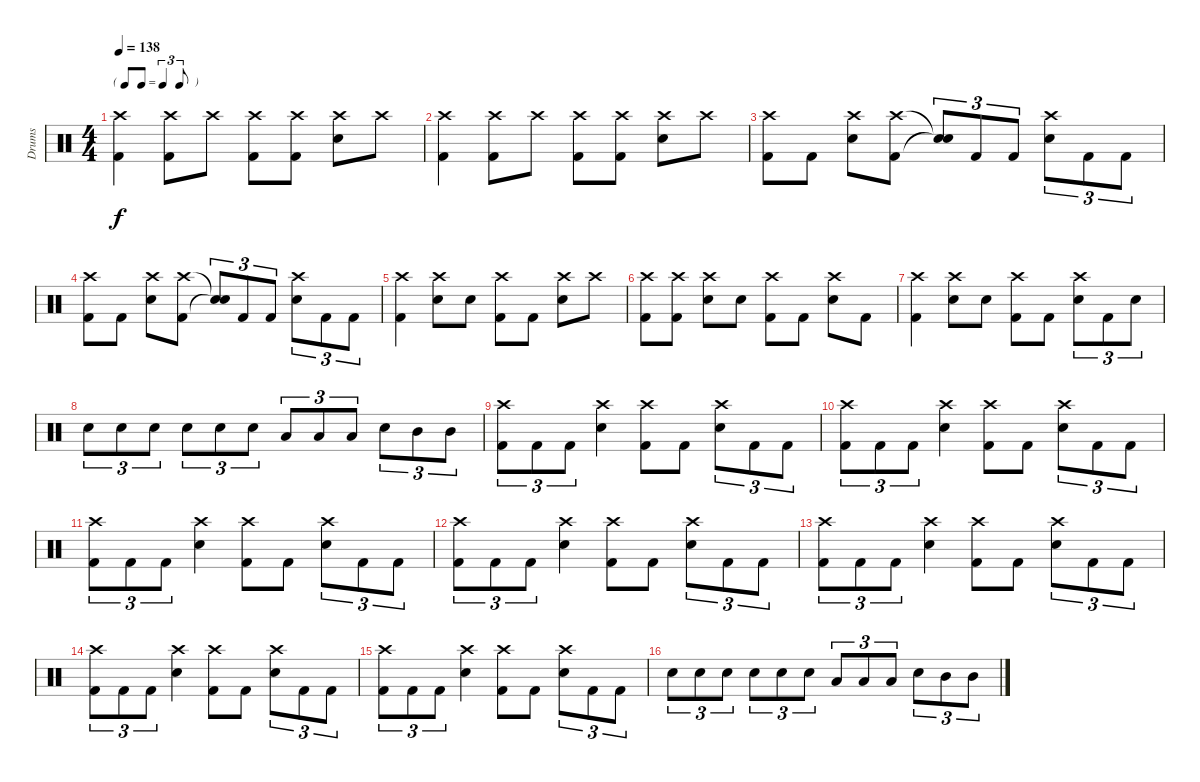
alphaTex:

\track ("Drums" "Drums") {instrument percussion}
\staff {score}
\articulation defaults
\ts (4 4)
\tf triplet8th
\tempo 138
\clef neutral
\ks c
("Crash high (hit)" "Kick (hit) 2").4{dy f} ("Crash high (hit)" "Kick (hit) 2").8 "Crash high (hit)".8 ("Crash high (hit)" "Kick (hit) 2").8 ("Crash high (hit)" "Kick (hit) 2").8 ("Crash high (hit)" "Snare (hit) 2").8 "Crash high (hit)".8 |
("Crash high (hit)" "Kick (hit) 2").4 ("Crash high (hit)" "Kick (hit) 2").8 "Crash high (hit)".8 ("Crash high (hit)" "Kick (hit) 2").8 ("Crash high (hit)" "Kick (hit) 2").8 ("Crash high (hit)" "Snare (hit) 2").8 "Crash high (hit)".8 |
("Crash high (hit)" "Kick (hit) 2").8 "Kick (hit) 2".8 ("Crash high (hit)" "Snare (hit) 2").8 ("Crash high (hit)" "Kick (hit) 2").8 ("Snare (hit)"{t} "Snare (hit)"{t}).8{tu (3 2)} "Kick (hit) 2".8{tu (3 2)} "Kick (hit) 2".8{tu (3 2)} ("Crash high (hit)" "Snare (hit) 2").8{tu (3 2)} "Kick (hit) 2".8{tu (3 2)} "Kick (hit) 2".8{tu (3 2)} |
("Crash high (hit)" "Kick (hit) 2").8 "Kick (hit) 2".8 ("Crash high (hit)" "Snare (hit) 2").8 ("Crash high (hit)" "Kick (hit) 2").8 ("Snare (hit)"{t} "Snare (hit)"{t}).8{tu (3 2)} "Kick (hit) 2".8{tu (3 2)} "Kick (hit) 2".8{tu (3 2)} ("Crash high (hit)" "Snare (hit) 2").8{tu (3 2)} "Kick (hit) 2".8{tu (3 2)} "Kick (hit) 2".8{tu (3 2)} |
("Crash high (hit)" "Kick (hit) 2").4 ("Crash high (hit)" "Snare (hit) 2").8 "Snare (hit) 2".8 ("Crash high (hit)" "Kick (hit) 2").8 "Kick (hit) 2".8 ("Crash high (hit)" "Snare (hit) 2").8 "Crash high (hit)".8 |
("Crash high (hit)" "Kick (hit) 2").8 ("Crash high (hit)" "Kick (hit) 2").8 ("Crash high (hit)" "Snare (hit) 2").8 "Snare (hit) 2".8 ("Crash high (hit)" "Kick (hit) 2").8 "Kick (hit) 2".8 ("Crash high (hit)" "Snare (hit) 2").8 "Kick (hit) 2".8 |
("Crash high (hit)" "Kick (hit) 2").4 ("Crash high (hit)" "Snare (hit) 2").8 "Snare (hit) 2".8 ("Crash high (hit)" "Kick (hit) 2").8 "Kick (hit) 2".8 ("Crash high (hit)" "Snare (hit) 2").8{tu (3 2)} "Kick (hit) 2".8{tu (3 2)} "Snare (hit) 2".8{tu (3 2)} |
"Snare (hit) 2".8{tu (3 2)} "Snare (hit) 2".8{tu (3 2)} "Snare (hit) 2".8{tu (3 2)} "Snare (hit) 2".8{tu (3 2)} "Snare (hit) 2".8{tu (3 2)} "Snare (hit) 2".8{tu (3 2)} "Low Tom (hit)".8{tu (3 2)} "Low Tom (hit)".8{tu (3 2)} "Low Tom (hit)".8{tu (3 2)} "Snare (hit) 2".8{tu (3 2)} "Mid Tom (hit)".8{tu (3 2)} "Mid Tom (hit)".8{tu (3 2)} |
("Crash high (hit)" "Kick (hit) 2").8{tu (3 2)} "Kick (hit) 2".8{tu (3 2)} "Kick (hit) 2".8{tu (3 2)} ("Crash high (hit)" "Snare (hit) 2").4 ("Crash high (hit)" "Kick (hit) 2").8 "Kick (hit) 2".8 ("Crash high (hit)" "Snare (hit) 2").8{tu (3 2)} "Kick (hit) 2".8{tu (3 2)} "Kick (hit) 2".8{tu (3 2)} |
("Crash high (hit)" "Kick (hit) 2").8{tu (3 2)} "Kick (hit) 2".8{tu (3 2)} "Kick (hit) 2".8{tu (3 2)} ("Crash high (hit)" "Snare (hit) 2").4 ("Crash high (hit)" "Kick (hit) 2").8 "Kick (hit) 2".8 ("Crash high (hit)" "Snare (hit) 2").8{tu (3 2)} "Kick (hit) 2".8{tu (3 2)} "Kick (hit) 2".8{tu (3 2)} |
("Crash high (hit)" "Kick (hit) 2").8{tu (3 2)} "Kick (hit) 2".8{tu (3 2)} "Kick (hit) 2".8{tu (3 2)} ("Crash high (hit)" "Snare (hit) 2").4 ("Crash high (hit)" "Kick (hit) 2").8 "Kick (hit) 2".8 ("Crash high (hit)" "Snare (hit) 2").8{tu (3 2)} "Kick (hit) 2".8{tu (3 2)} "Kick (hit) 2".8{tu (3 2)} |
("Crash high (hit)" "Kick (hit) 2").8{tu (3 2)} "Kick (hit) 2".8{tu (3 2)} "Kick (hit) 2".8{tu (3 2)} ("Crash high (hit)" "Snare (hit) 2").4 ("Crash high (hit)" "Kick (hit) 2").8 "Kick (hit) 2".8 ("Crash high (hit)" "Snare (hit) 2").8{tu (3 2)} "Kick (hit) 2".8{tu (3 2)} "Kick (hit) 2".8{tu (3 2)} |
("Crash high (hit)" "Kick (hit) 2").8{tu (3 2)} "Kick (hit) 2".8{tu (3 2)} "Kick (hit) 2".8{tu (3 2)} ("Crash high (hit)" "Snare (hit) 2").4 ("Crash high (hit)" "Kick (hit) 2").8 "Kick (hit) 2".8 ("Crash high (hit)" "Snare (hit) 2").8{tu (3 2)} "Kick (hit) 2".8{tu (3 2)} "Kick (hit) 2".8{tu (3 2)} |
("Crash high (hit)" "Kick (hit) 2").8{tu (3 2)} "Kick (hit) 2".8{tu (3 2)} "Kick (hit) 2".8{tu (3 2)} ("Crash high (hit)" "Snare (hit) 2").4 ("Crash high (hit)" "Kick (hit) 2").8 "Kick (hit) 2".8 ("Crash high (hit)" "Snare (hit) 2").8{tu (3 2)} "Kick (hit) 2".8{tu (3 2)} "Kick (hit) 2".8{tu (3 2)} |
("Crash high (hit)" "Kick (hit) 2").8{tu (3 2)} "Kick (hit) 2".8{tu (3 2)} "Kick (hit) 2".8{tu (3 2)} ("Crash high (hit)" "Snare (hit) 2").4 ("Crash high (hit)" "Kick (hit) 2").8 "Kick (hit) 2".8 ("Crash high (hit)" "Snare (hit) 2").8{tu (3 2)} "Kick (hit) 2".8{tu (3 2)} "Kick (hit) 2".8{tu (3 2)} |
"Snare (hit) 2".8{tu (3 2)} "Snare (hit) 2".8{tu (3 2)} "Snare (hit) 2".8{tu (3 2)} "Snare (hit) 2".8{tu (3 2)} "Snare (hit) 2".8{tu (3 2)} "Snare (hit) 2".8{tu (3 2)} "Low Tom (hit)".8{tu (3 2)} "Low Tom (hit)".8{tu (3 2)} "Low Tom (hit)".8{tu (3 2)} "Snare (hit) 2".8{tu (3 2)} "Mid Tom (hit)".8{tu (3 2)} "Mid Tom (hit)".8{tu (3 2)}
